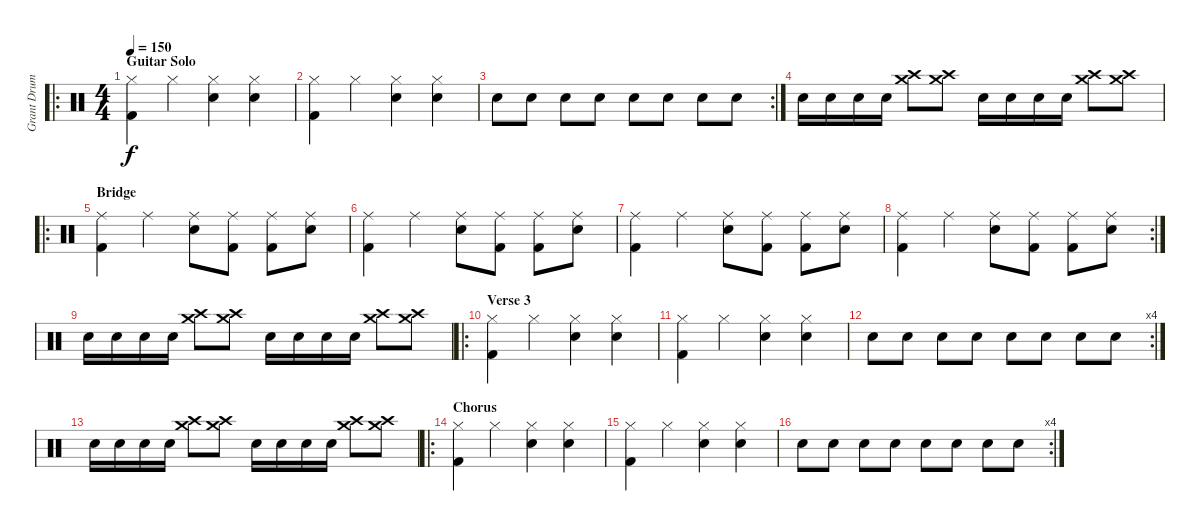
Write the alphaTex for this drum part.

\track ("Grant Drums" "Grant Drum") {instrument percussion}
\staff {score}
\articulation defaults
\ro
\ts (4 4)
\section ("" "Guitar Solo")
\tempo 150
\clef neutral
\ks c
("Hi-Hat (closed)" "Kick (hit) 2").4{dy f} "Hi-Hat (closed)".4 ("Hi-Hat (closed)" "Snare (hit) 2").4 ("Hi-Hat (closed)" "Snare (hit) 2").4 |
("Hi-Hat (closed)" "Kick (hit) 2").4 "Hi-Hat (closed)".4 ("Hi-Hat (closed)" "Snare (hit) 2").4 ("Hi-Hat (closed)" "Snare (hit) 2").4 |
\rc 2 "Snare (hit) 2".8 "Snare (hit) 2".8 "Snare (hit) 2".8 "Snare (hit) 2".8 "Snare (hit) 2".8 "Snare (hit) 2".8 "Snare (hit) 2".8 "Snare (hit) 2".8
|
"Snare (hit) 2".16 "Snare (hit) 2".16 "Snare (hit) 2".16 "Snare (hit) 2".16 ("Crash medium (hit)" "Crash high (hit)").8 ("Crash medium (hit)" "Crash high (hit)").8 "Snare (hit) 2".16 "Snare (hit) 2".16 "Snare (hit) 2".16 "Snare (hit) 2".16 ("Crash medium (hit)" "Crash high (hit)").8 ("Crash medium (hit)" "Crash high (hit)").8 |
\ro
\section ("" "Bridge")
("Ride (middle)" "Kick (hit) 2").4 "Ride (middle)".4 ("Ride (middle)" "Snare (hit) 2").8 ("Ride (middle)" "Kick (hit) 2").8 ("Ride (middle)" "Kick (hit) 2").8 ("Ride (middle)" "Snare (hit) 2").8 |
("Ride (middle)" "Kick (hit) 2").4 "Ride (middle)".4 ("Ride (middle)" "Snare (hit) 2").8 ("Ride (middle)" "Kick (hit) 2").8 ("Ride (middle)" "Kick (hit) 2").8 ("Ride (middle)" "Snare (hit) 2").8 |
("Ride (middle)" "Kick (hit) 2").4 "Ride (middle)".4 ("Ride (middle)" "Snare (hit) 2").8 ("Ride (middle)" "Kick (hit) 2").8 ("Ride (middle)" "Kick (hit) 2").8 ("Ride (middle)" "Snare (hit) 2").8 |
\rc 2
("Ride (middle)" "Kick (hit) 2").4 "Ride (middle)".4 ("Ride (middle)" "Snare (hit) 2").8 ("Ride (middle)" "Kick (hit) 2").8 ("Ride (middle)" "Kick (hit) 2").8 ("Ride (middle)" "Snare (hit) 2").8 |
"Snare (hit) 2".16 "Snare (hit) 2".16 "Snare (hit) 2".16 "Snare (hit) 2".16 ("Crash medium (hit)" "Crash high (hit)").8 ("Crash medium (hit)" "Crash high (hit)").8 "Snare (hit) 2".16 "Snare (hit) 2".16 "Snare (hit) 2".16 "Snare (hit) 2".16 ("Crash medium (hit)" "Crash high (hit)").8 ("Crash medium (hit)" "Crash high (hit)").8 |
\ro
\section ("" "Verse 3")
("Hi-Hat (closed)" "Kick (hit) 2").4 "Hi-Hat (closed)".4 ("Hi-Hat (closed)" "Snare (hit) 2").4 ("Hi-Hat (closed)" "Snare (hit) 2").4 |
("Hi-Hat (closed)" "Kick (hit) 2").4 "Hi-Hat (closed)".4 ("Hi-Hat (closed)" "Snare (hit) 2").4 ("Hi-Hat (closed)" "Snare (hit) 2").4 |
\rc 4 "Snare (hit) 2".8 "Snare (hit) 2".8 "Snare (hit) 2".8 "Snare (hit) 2".8 "Snare (hit) 2".8 "Snare (hit) 2".8 "Snare (hit) 2".8 "Snare (hit) 2".8
|
"Snare (hit) 2".16 "Snare (hit) 2".16 "Snare (hit) 2".16 "Snare (hit) 2".16 ("Crash medium (hit)" "Crash high (hit)").8 ("Crash medium (hit)" "Crash high (hit)").8 "Snare (hit) 2".16 "Snare (hit) 2".16 "Snare (hit) 2".16 "Snare (hit) 2".16 ("Crash medium (hit)" "Crash high (hit)").8 ("Crash medium (hit)" "Crash high (hit)").8 |
\ro
\section ("" "Chorus")
("Hi-Hat (closed)" "Kick (hit) 2").4 "Hi-Hat (closed)".4 ("Hi-Hat (closed)" "Snare (hit) 2").4 ("Hi-Hat (closed)" "Snare (hit) 2").4 |
("Hi-Hat (closed)" "Kick (hit) 2").4 "Hi-Hat (closed)".4 ("Hi-Hat (closed)" "Snare (hit) 2").4 ("Hi-Hat (closed)" "Snare (hit) 2").4 |
\rc 4 "Snare (hit) 2".8 "Snare (hit) 2".8 "Snare (hit) 2".8 "Snare (hit) 2".8 "Snare (hit) 2".8 "Snare (hit) 2".8 "Snare (hit) 2".8 "Snare (hit) 2".8
